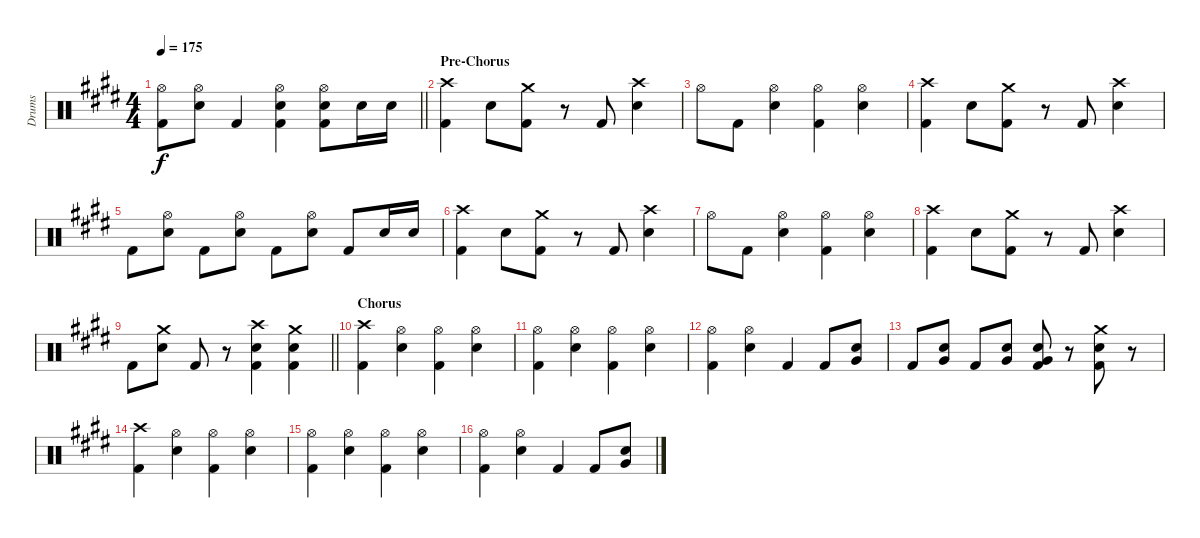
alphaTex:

\track ("Drums" "Drums") {instrument percussion}
\staff {score}
\articulation defaults
\ts (4 4)
\tempo 175
\clef neutral
\barLineRight lightlight
\ks e
("Hi-Hat (open)" "Kick (hit) 2").8{dy f} ("Hi-Hat (open)" "Electric Snare (hit)").8 "Kick (hit) 2".4 ("Hi-Hat (open)" "Electric Snare (hit)" "Kick (hit) 2").4 ("Hi-Hat (open)" "Electric Snare (hit)" "Kick (hit) 2").8 "Electric Snare (hit)".16 "Electric Snare (hit)".16 |
\section ("" "Pre-Chorus")
("Crash high (hit)" "Kick (hit) 2").4 "Electric Snare (hit)".8 ("Crash medium (hit)" "Kick (hit) 2").8 r.8 "Kick (hit) 2".8 ("Crash high (hit)" "Electric Snare (hit)").4 |
"Hi-Hat (open)".8 "Kick (hit) 2".8 ("Hi-Hat (open)" "Electric Snare (hit)").4 ("Hi-Hat (open)" "Kick (hit) 2").4 ("Hi-Hat (open)" "Electric Snare (hit)").4 |
("Crash high (hit)" "Kick (hit) 2").4 "Electric Snare (hit)".8 ("Crash medium (hit)" "Kick (hit) 2").8 r.8 "Kick (hit) 2".8 ("Crash high (hit)" "Electric Snare (hit)").4 |
"Kick (hit) 2".8 ("Hi-Hat (open)" "Electric Snare (hit)").8 "Kick (hit) 2".8 ("Hi-Hat (open)" "Electric Snare (hit)").8 "Kick (hit) 2".8 ("Hi-Hat (open)" "Electric Snare (hit)").8 "Kick (hit) 2".8 "Electric Snare (hit)".16 "Electric Snare (hit)".16 |
("Crash high (hit)" "Kick (hit) 2").4 "Electric Snare (hit)".8 ("Crash medium (hit)" "Kick (hit) 2").8 r.8 "Kick (hit) 2".8 ("Crash high (hit)" "Electric Snare (hit)").4 |
"Hi-Hat (open)".8 "Kick (hit) 2".8 ("Hi-Hat (open)" "Electric Snare (hit)").4 ("Hi-Hat (open)" "Kick (hit) 2").4 ("Hi-Hat (open)" "Electric Snare (hit)").4 |
("Crash high (hit)" "Kick (hit) 2").4 "Electric Snare (hit)".8 ("Crash medium (hit)" "Kick (hit) 2").8 r.8 "Kick (hit) 2".8 ("Crash high (hit)" "Electric Snare (hit)").4 |
\barLineRight lightlight "Kick (hit) 2".8
("Crash medium (hit)" "Electric Snare (hit)").8 "Kick (hit) 2".8 r.8 ("Crash high (hit)" "Electric Snare (hit)" "Kick (hit) 2").4 ("Crash medium (hit)" "Electric Snare (hit)" "Kick (hit) 2").4 |
\section ("" "Chorus")
("Crash high (hit)" "Kick (hit) 2").4 ("Hi-Hat (open)" "Electric Snare (hit)").4 ("Hi-Hat (open)" "Kick (hit) 2").4 ("Hi-Hat (open)" "Electric Snare (hit)").4 |
("Hi-Hat (open)" "Kick (hit) 2").4 ("Hi-Hat (open)" "Electric Snare (hit)").4 ("Hi-Hat (open)" "Kick (hit) 2").4 ("Hi-Hat (open)" "Electric Snare (hit)").4 |
("Hi-Hat (open)" "Kick (hit) 2").4 ("Hi-Hat (open)" "Electric Snare (hit)").4 "Kick (hit) 2".4 "Kick (hit) 2".8 ("Electric Snare (hit)" "Very Low Tom (hit)").8 |
"Kick (hit) 2".8 ("Electric Snare (hit)" "Very Low Tom (hit)").8 "Kick (hit) 2".8 ("Electric Snare (hit)" "Very Low Tom (hit)").8 ("Electric Snare (hit)" "Very Low Tom (hit)" "Kick (hit) 2").8 r.8 ("Crash medium (hit)" "Electric Snare (hit)" "Kick (hit) 2").8 r.8 |
("Crash high (hit)" "Kick (hit) 2").4 ("Hi-Hat (open)" "Electric Snare (hit)").4 ("Hi-Hat (open)" "Kick (hit) 2").4 ("Hi-Hat (open)" "Electric Snare (hit)").4 |
("Hi-Hat (open)" "Kick (hit) 2").4 ("Hi-Hat (open)" "Electric Snare (hit)").4 ("Hi-Hat (open)" "Kick (hit) 2").4 ("Hi-Hat (open)" "Electric Snare (hit)").4 |
("Hi-Hat (open)" "Kick (hit) 2").4 ("Hi-Hat (open)" "Electric Snare (hit)").4 "Kick (hit) 2".4 "Kick (hit) 2".8 ("Electric Snare (hit)" "Very Low Tom (hit)").8
